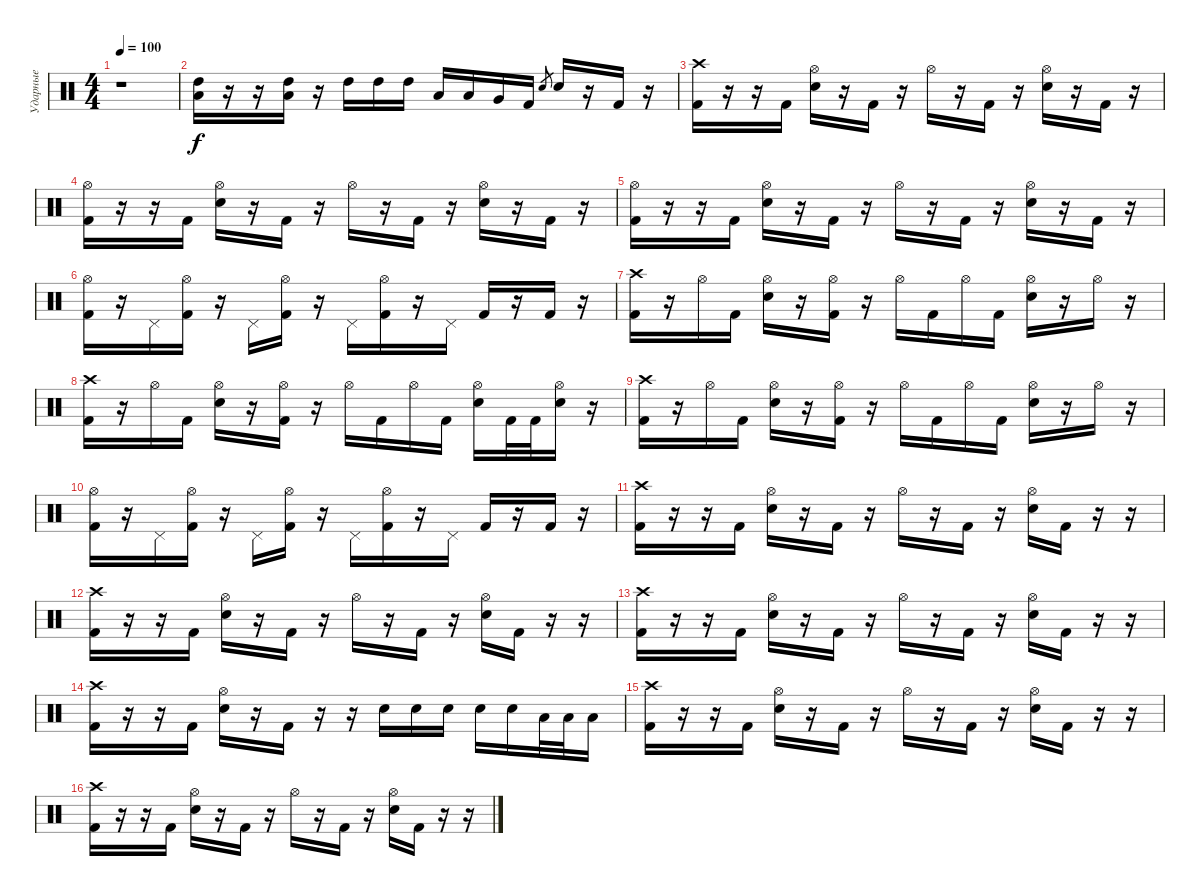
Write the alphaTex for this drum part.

\track ("Ударные" "Ударные") {instrument percussion}
\staff {score}
\articulation defaults
\ts (4 4)
\tempo 100
\clef neutral
\ks c
r.1{dy f} |
("Low Tom (hit)" "High Tom (hit)").16 r.16 r.16 ("Low Tom (hit)" "High Tom (hit)").16 r.16 "High Tom (hit)".16 "High Tom (hit)".16 "High Tom (hit)".16 "Low Tom (hit)".16 "Low Tom (hit)".16 "Very Low Tom (hit)".16 "Kick (hit) 2".16 "Electric Snare (hit)".8{gr} "Electric Snare (hit)".16 r.16 "Kick (hit) 2".16 r.16 |
("Crash high (hit)" "Kick (hit) 2").16 r.16 r.16 "Kick (hit) 2".16 ("Hi-Hat (open)" "Electric Snare (hit)").16 r.16 "Kick (hit) 2".16 r.16 "Hi-Hat (open)".16 r.16 "Kick (hit) 2".16 r.16 ("Hi-Hat (open)" "Electric Snare (hit)").16 r.16 "Kick (hit) 2".16 r.16 |
("Hi-Hat (open)" "Kick (hit) 2").16 r.16 r.16 "Kick (hit) 2".16 ("Hi-Hat (open)" "Electric Snare (hit)").16 r.16 "Kick (hit) 2".16 r.16 "Hi-Hat (open)".16 r.16 "Kick (hit) 2".16 r.16 ("Hi-Hat (open)" "Electric Snare (hit)").16 r.16 "Kick (hit) 2".16 r.16 |
("Hi-Hat (open)" "Kick (hit) 2").16 r.16 r.16 "Kick (hit) 2".16 ("Hi-Hat (open)" "Electric Snare (hit)").16 r.16 "Kick (hit) 2".16 r.16 "Hi-Hat (open)".16 r.16 "Kick (hit) 2".16 r.16 ("Hi-Hat (open)" "Electric Snare (hit)").16 r.16 "Kick (hit) 2".16 r.16 |
("Hi-Hat (open)" "Kick (hit) 2").16 r.16 "Pedal Hi-Hat (hit)".16 ("Hi-Hat (open)" "Kick (hit) 2").16 r.16 "Pedal Hi-Hat (hit)".16 ("Hi-Hat (open)" "Kick (hit) 2").16 r.16 "Pedal Hi-Hat (hit)".16 ("Hi-Hat (open)" "Kick (hit) 2").16 r.16 "Pedal Hi-Hat (hit)".16 "Kick (hit) 2".16 r.16 "Kick (hit) 2".16 r.16 |
("Crash high (hit)" "Kick (hit) 2").16 r.16 "Hi-Hat (open)".16 "Kick (hit) 2".16 ("Hi-Hat (open)" "Electric Snare (hit)").16 r.16 ("Hi-Hat (open)" "Kick (hit) 2").16 r.16 "Hi-Hat (open)".16 "Kick (hit) 2".16 "Hi-Hat (open)".16 "Kick (hit) 2".16 ("Hi-Hat (open)" "Electric Snare (hit)").16 r.16 "Hi-Hat (open)".16 r.16 |
("Crash high (hit)" "Kick (hit) 2").16 r.16 "Hi-Hat (open)".16 "Kick (hit) 2".16 ("Hi-Hat (open)" "Electric Snare (hit)").16 r.16 ("Hi-Hat (open)" "Kick (hit) 2").16 r.16 "Hi-Hat (open)".16 "Kick (hit) 2".16 "Hi-Hat (open)".16 "Kick (hit) 2".16 ("Hi-Hat (open)" "Electric Snare (hit)").16 "Kick (hit) 2".32 "Kick (hit) 2".32 ("Hi-Hat (open)" "Electric Snare (hit)").16 r.16 |
("Crash high (hit)" "Kick (hit) 2").16 r.16 "Hi-Hat (open)".16 "Kick (hit) 2".16 ("Hi-Hat (open)" "Electric Snare (hit)").16 r.16 ("Hi-Hat (open)" "Kick (hit) 2").16 r.16 "Hi-Hat (open)".16 "Kick (hit) 2".16 "Hi-Hat (open)".16 "Kick (hit) 2".16 ("Hi-Hat (open)" "Electric Snare (hit)").16 r.16 "Hi-Hat (open)".16 r.16 |
("Hi-Hat (open)" "Kick (hit) 2").16 r.16 "Pedal Hi-Hat (hit)".16 ("Hi-Hat (open)" "Kick (hit) 2").16 r.16 "Pedal Hi-Hat (hit)".16 ("Hi-Hat (open)" "Kick (hit) 2").16 r.16 "Pedal Hi-Hat (hit)".16 ("Hi-Hat (open)" "Kick (hit) 2").16 r.16 "Pedal Hi-Hat (hit)".16 "Kick (hit) 2".16 r.16 "Kick (hit) 2".16 r.16 |
("Crash high (hit)" "Kick (hit) 2").16 r.16 r.16 "Kick (hit) 2".16 ("Hi-Hat (open)" "Electric Snare (hit)").16 r.16 "Kick (hit) 2".16 r.16 "Hi-Hat (open)".16 r.16 "Kick (hit) 2".16 r.16 ("Hi-Hat (open)" "Electric Snare (hit)").16 "Kick (hit) 2".16 r.16 r.16 |
("Crash high (hit)" "Kick (hit) 2").16 r.16 r.16 "Kick (hit) 2".16 ("Hi-Hat (open)" "Electric Snare (hit)").16 r.16 "Kick (hit) 2".16 r.16 "Hi-Hat (open)".16 r.16 "Kick (hit) 2".16 r.16 ("Hi-Hat (open)" "Electric Snare (hit)").16 "Kick (hit) 2".16 r.16 r.16 |
("Crash high (hit)" "Kick (hit) 2").16 r.16 r.16 "Kick (hit) 2".16 ("Hi-Hat (open)" "Electric Snare (hit)").16 r.16 "Kick (hit) 2".16 r.16 "Hi-Hat (open)".16 r.16 "Kick (hit) 2".16 r.16 ("Hi-Hat (open)" "Electric Snare (hit)").16 "Kick (hit) 2".16 r.16 r.16 |
("Crash high (hit)" "Kick (hit) 2").16 r.16 r.16 "Kick (hit) 2".16 ("Hi-Hat (open)" "Electric Snare (hit)").16 r.16 "Kick (hit) 2".16 r.16 r.16 "Electric Snare (hit)".16 "Electric Snare (hit)".16 "Electric Snare (hit)".16 "Electric Snare (hit)".16 "Electric Snare (hit)".16 "Low Tom (hit)".32 "Low Tom (hit)".32 "Low Tom (hit)".16 |
("Crash high (hit)" "Kick (hit) 2").16 r.16 r.16 "Kick (hit) 2".16 ("Hi-Hat (open)" "Electric Snare (hit)").16 r.16 "Kick (hit) 2".16 r.16 "Hi-Hat (open)".16 r.16 "Kick (hit) 2".16 r.16 ("Hi-Hat (open)" "Electric Snare (hit)").16 "Kick (hit) 2".16 r.16 r.16 |
("Crash high (hit)" "Kick (hit) 2").16 r.16 r.16 "Kick (hit) 2".16 ("Hi-Hat (open)" "Electric Snare (hit)").16 r.16 "Kick (hit) 2".16 r.16 "Hi-Hat (open)".16 r.16 "Kick (hit) 2".16 r.16 ("Hi-Hat (open)" "Electric Snare (hit)").16 "Kick (hit) 2".16 r.16 r.16
